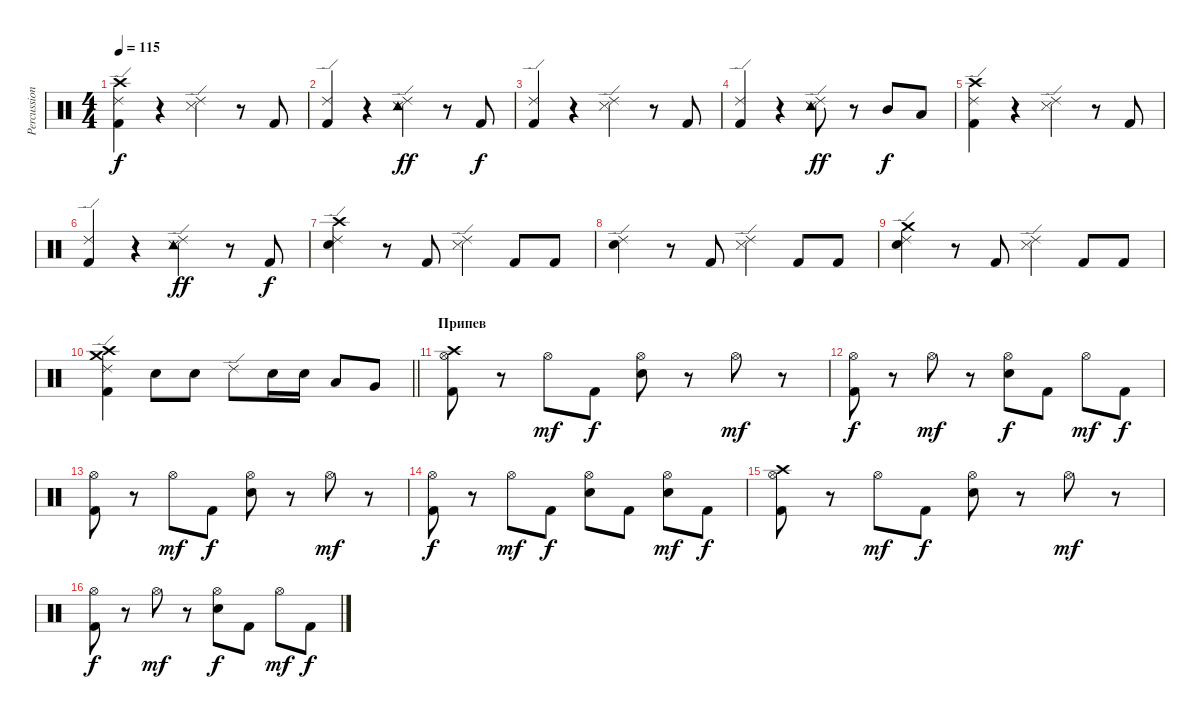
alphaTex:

\track ("Percussions" "Percussion") {instrument percussion}
\staff {score}
\articulation defaults
\ts (4 4)
\tempo 115
\clef neutral
\ks c
("Crash high (hit)" "Kick (hit) 2" "Ride (edge) 2").4{dy f} r.4 ("Snare (side stick) 3" "Ride (edge) 2").4 r.8 "Kick (hit) 2".8 |
("Kick (hit) 2" "Ride (edge) 2").4 r.4 ("Snare (side stick) 3" "Tambourine (hit)" "Ride (edge) 2").4{dy ff} r.8 "Kick (hit) 2".8{dy f} |
("Kick (hit) 2" "Ride (edge) 2").4 r.4 ("Snare (side stick) 3" "Ride (edge) 2").4 r.8 "Kick (hit) 2".8 |
("Kick (hit) 2" "Ride (edge) 2").4 r.4 ("Snare (side stick) 3" "Tambourine (hit)" "Ride (edge) 2").8{dy ff} r.8 "Mid Tom (hit)".8{dy f} "Low Tom (hit)".8 |
("Crash high (hit)" "Kick (hit) 2" "Ride (edge) 2").4 r.4 ("Snare (side stick) 3" "Ride (edge) 2").4 r.8 "Kick (hit) 2".8 |
("Kick (hit) 2" "Ride (edge) 2").4 r.4 ("Snare (side stick) 3" "Tambourine (hit)" "Ride (edge) 2").4{dy ff} r.8 "Kick (hit) 2".8{dy f} |
("Crash high (hit)" "Electric Snare (hit)" "Ride (edge) 2").4 r.8 "Kick (hit) 2".8 ("Snare (side stick) 3" "Ride (edge) 2").4 "Kick (hit) 2".8 "Kick (hit) 2".8 |
("Electric Snare (hit)" "Ride (edge) 2").4 r.8 "Kick (hit) 2".8 ("Snare (side stick) 3" "Ride (edge) 2").4 "Kick (hit) 2".8 "Kick (hit) 2".8 |
("Crash medium (hit)" "Electric Snare (hit)" "Ride (edge) 2").4 r.8 "Kick (hit) 2".8 ("Snare (side stick) 3" "Ride (edge) 2").4 "Kick (hit) 2".8 "Kick (hit) 2".8 |
\barLineRight lightlight
("Crash high (hit)" "Crash medium (hit)" "Kick (hit) 2" "Ride (edge) 2").4 "Electric Snare (hit)".8 "Electric Snare (hit)".8 "Ride (edge) 2".8 "Electric Snare (hit)".16 "Electric Snare (hit)".16 "Low Tom (hit)".8 "Very Low Tom (hit)".8 |
\section ("" "Припев")
("Crash high (hit)" "Kick (hit) 2" "Hi-Hat (open)").8 r.8 "Hi-Hat (open)".8{dy mf} "Kick (hit) 2".8{dy f} ("Electric Snare (hit)" "Hi-Hat (open)").8 r.8 "Hi-Hat (open)".8{dy mf} r.8 |
("Kick (hit) 2" "Hi-Hat (open)").8{dy f} r.8 "Hi-Hat (open)".8{dy mf} r.8 ("Electric Snare (hit)" "Hi-Hat (open)").8{dy f} "Kick (hit) 2".8 "Hi-Hat (open)".8{dy mf} "Kick (hit) 2".8{dy f} |
("Kick (hit) 2" "Hi-Hat (open)").8 r.8 "Hi-Hat (open)".8{dy mf} "Kick (hit) 2".8{dy f} ("Electric Snare (hit)" "Hi-Hat (open)").8 r.8 "Hi-Hat (open)".8{dy mf} r.8 |
("Kick (hit) 2" "Hi-Hat (open)").8{dy f} r.8 "Hi-Hat (open)".8{dy mf} "Kick (hit) 2".8{dy f} ("Electric Snare (hit)" "Hi-Hat (open)").8 "Kick (hit) 2".8 ("Electric Snare (hit)" "Hi-Hat (open)").8{dy mf} "Kick (hit) 2".8{dy f} |
("Crash high (hit)" "Kick (hit) 2" "Hi-Hat (open)").8 r.8 "Hi-Hat (open)".8{dy mf} "Kick (hit) 2".8{dy f} ("Electric Snare (hit)" "Hi-Hat (open)").8 r.8 "Hi-Hat (open)".8{dy mf} r.8 |
("Kick (hit) 2" "Hi-Hat (open)").8{dy f} r.8 "Hi-Hat (open)".8{dy mf} r.8 ("Electric Snare (hit)" "Hi-Hat (open)").8{dy f} "Kick (hit) 2".8 "Hi-Hat (open)".8{dy mf} "Kick (hit) 2".8{dy f}
